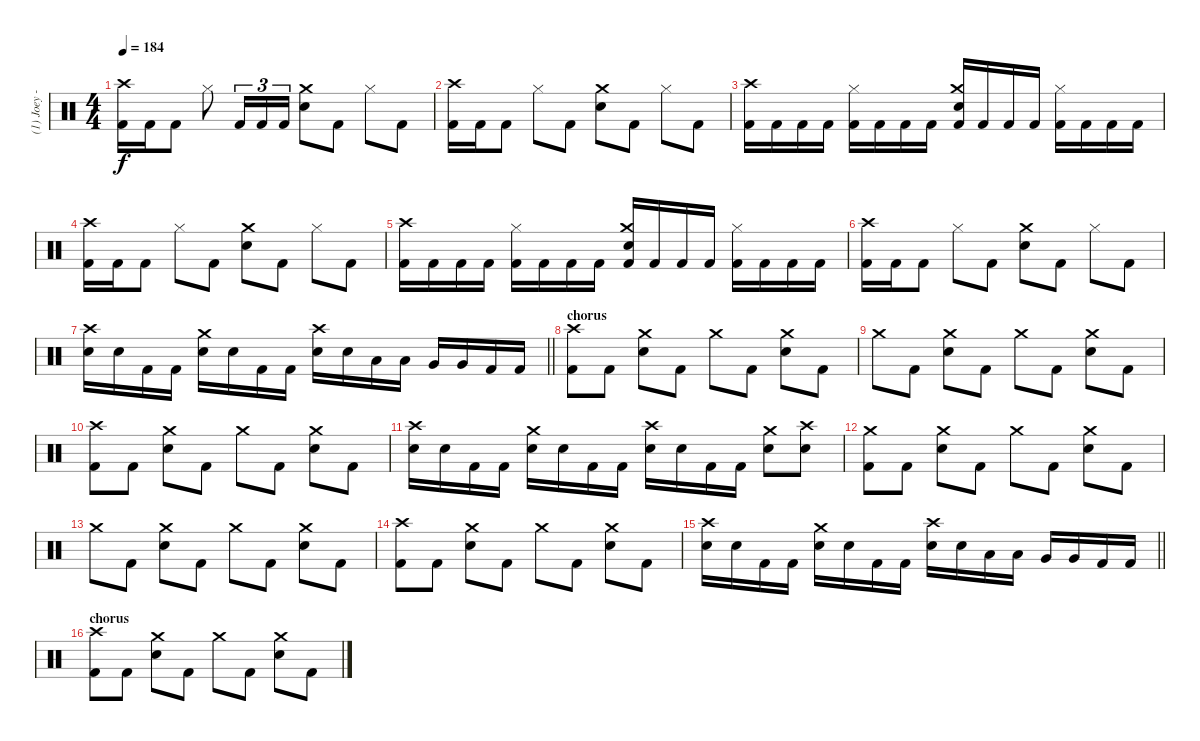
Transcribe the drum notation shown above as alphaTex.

\track ("(1) Joey - drums" "(1) Joey -") {instrument percussion}
\staff {score}
\articulation defaults
\ts (4 4)
\tempo 184
\clef neutral
\ks c
("Crash high (hit)" "Kick (hit) 2").16{dy f} "Kick (hit) 2".16 "Kick (hit) 2".8 "Hi-Hat (closed)".8 "Kick (hit) 2".16{tu (3 2)} "Kick (hit) 2".16{tu (3 2)} "Kick (hit) 2".16{tu (3 2)} ("Crash medium (hit)" "Electric Snare (hit)").8 "Kick (hit) 2".8 "Hi-Hat (closed)".8 "Kick (hit) 2".8 |
("Crash high (hit)" "Kick (hit) 2").16 "Kick (hit) 2".16 "Kick (hit) 2".8 "Hi-Hat (closed)".8 "Kick (hit) 2".8 ("Crash medium (hit)" "Electric Snare (hit)").8 "Kick (hit) 2".8 "Hi-Hat (closed)".8 "Kick (hit) 2".8 |
("Crash high (hit)" "Kick (hit) 2").16 "Kick (hit) 2".16 "Kick (hit) 2".16 "Kick (hit) 2".16 ("Hi-Hat (closed)" "Kick (hit) 2").16 "Kick (hit) 2".16 "Kick (hit) 2".16 "Kick (hit) 2".16 ("Crash medium (hit)" "Electric Snare (hit)" "Kick (hit) 2").16 "Kick (hit) 2".16 "Kick (hit) 2".16 "Kick (hit) 2".16 ("Hi-Hat (closed)" "Kick (hit) 2").16 "Kick (hit) 2".16 "Kick (hit) 2".16 "Kick (hit) 2".16 |
("Crash high (hit)" "Kick (hit) 2").16 "Kick (hit) 2".16 "Kick (hit) 2".8 "Hi-Hat (closed)".8 "Kick (hit) 2".8 ("Crash medium (hit)" "Electric Snare (hit)").8 "Kick (hit) 2".8 "Hi-Hat (closed)".8 "Kick (hit) 2".8 |
("Crash high (hit)" "Kick (hit) 2").16 "Kick (hit) 2".16 "Kick (hit) 2".16 "Kick (hit) 2".16 ("Hi-Hat (closed)" "Kick (hit) 2").16 "Kick (hit) 2".16 "Kick (hit) 2".16 "Kick (hit) 2".16 ("Crash medium (hit)" "Electric Snare (hit)" "Kick (hit) 2").16 "Kick (hit) 2".16 "Kick (hit) 2".16 "Kick (hit) 2".16 ("Hi-Hat (closed)" "Kick (hit) 2").16 "Kick (hit) 2".16 "Kick (hit) 2".16 "Kick (hit) 2".16 |
("Crash high (hit)" "Kick (hit) 2").16 "Kick (hit) 2".16 "Kick (hit) 2".8 "Hi-Hat (closed)".8 "Kick (hit) 2".8 ("Crash medium (hit)" "Electric Snare (hit)").8 "Kick (hit) 2".8 "Hi-Hat (closed)".8 "Kick (hit) 2".8 |
\barLineRight lightlight
("Crash high (hit)" "Electric Snare (hit)").16 "Electric Snare (hit)".16 "Kick (hit) 2".16 "Kick (hit) 2".16 ("Crash medium (hit)" "Electric Snare (hit)").16 "Electric Snare (hit)".16 "Kick (hit) 2".16 "Kick (hit) 2".16 ("Crash high (hit)" "Electric Snare (hit)").16 "Electric Snare (hit)".16 "Low Tom (hit)".16 "Low Tom (hit)".16 "Very Low Tom (hit)".16 "Very Low Tom (hit)".16 "Kick (hit) 2".16 "Kick (hit) 2".16 |
\section ("" "chorus")
("Crash high (hit)" "Kick (hit) 2").8 "Kick (hit) 2".8 ("Crash medium (hit)" "Electric Snare (hit)").8 "Kick (hit) 2".8 "Crash medium (hit)".8 "Kick (hit) 2".8 ("Crash medium (hit)" "Electric Snare (hit)").8 "Kick (hit) 2".8 |
"Crash medium (hit)".8 "Kick (hit) 2".8 ("Crash medium (hit)" "Electric Snare (hit)").8 "Kick (hit) 2".8 "Crash medium (hit)".8 "Kick (hit) 2".8 ("Crash medium (hit)" "Electric Snare (hit)").8 "Kick (hit) 2".8 |
("Crash high (hit)" "Kick (hit) 2").8 "Kick (hit) 2".8 ("Crash medium (hit)" "Electric Snare (hit)").8 "Kick (hit) 2".8 "Crash medium (hit)".8 "Kick (hit) 2".8 ("Crash medium (hit)" "Electric Snare (hit)").8 "Kick (hit) 2".8 |
("Crash high (hit)" "Electric Snare (hit)").16 "Electric Snare (hit)".16 "Kick (hit) 2".16 "Kick (hit) 2".16 ("Crash medium (hit)" "Electric Snare (hit)").16 "Electric Snare (hit)".16 "Kick (hit) 2".16 "Kick (hit) 2".16 ("Crash high (hit)" "Electric Snare (hit)").16 "Electric Snare (hit)".16 "Kick (hit) 2".16 "Kick (hit) 2".16 ("Crash medium (hit)" "Electric Snare (hit)").8 ("Crash high (hit)" "Electric Snare (hit)").8 |
("Crash medium (hit)" "Kick (hit) 2").8 "Kick (hit) 2".8 ("Crash medium (hit)" "Electric Snare (hit)").8 "Kick (hit) 2".8 "Crash medium (hit)".8 "Kick (hit) 2".8 ("Crash medium (hit)" "Electric Snare (hit)").8 "Kick (hit) 2".8 |
"Crash medium (hit)".8 "Kick (hit) 2".8 ("Crash medium (hit)" "Electric Snare (hit)").8 "Kick (hit) 2".8 "Crash medium (hit)".8 "Kick (hit) 2".8 ("Crash medium (hit)" "Electric Snare (hit)").8 "Kick (hit) 2".8 |
("Crash high (hit)" "Kick (hit) 2").8 "Kick (hit) 2".8 ("Crash medium (hit)" "Electric Snare (hit)").8 "Kick (hit) 2".8 "Crash medium (hit)".8 "Kick (hit) 2".8 ("Crash medium (hit)" "Electric Snare (hit)").8 "Kick (hit) 2".8 |
\barLineRight lightlight
("Crash high (hit)" "Electric Snare (hit)").16 "Electric Snare (hit)".16 "Kick (hit) 2".16 "Kick (hit) 2".16 ("Crash medium (hit)" "Electric Snare (hit)").16 "Electric Snare (hit)".16 "Kick (hit) 2".16 "Kick (hit) 2".16 ("Crash high (hit)" "Electric Snare (hit)").16 "Electric Snare (hit)".16 "Low Tom (hit)".16 "Low Tom (hit)".16 "Very Low Tom (hit)".16 "Very Low Tom (hit)".16 "Kick (hit) 2".16 "Kick (hit) 2".16 |
\section ("" "chorus")
("Crash high (hit)" "Kick (hit) 2").8 "Kick (hit) 2".8 ("Crash medium (hit)" "Electric Snare (hit)").8 "Kick (hit) 2".8 "Crash medium (hit)".8 "Kick (hit) 2".8 ("Crash medium (hit)" "Electric Snare (hit)").8 "Kick (hit) 2".8
